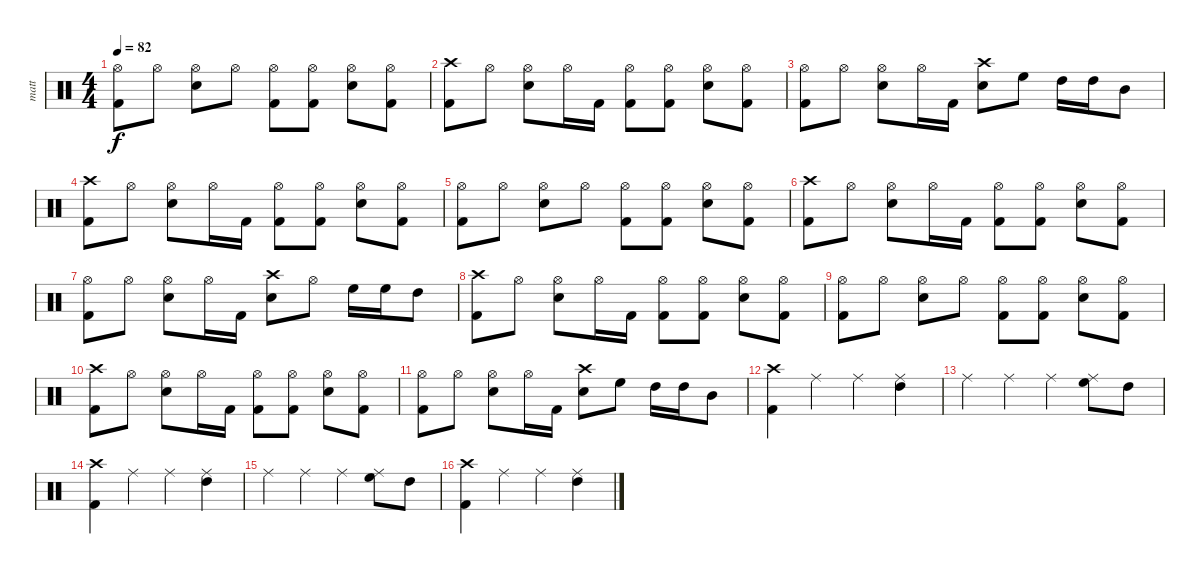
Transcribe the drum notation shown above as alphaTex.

\track ("matt" "matt") {instrument percussion}
\staff {score}
\articulation defaults
\ts (4 4)
\tempo 82
\clef neutral
\ks c
("Hi-Hat (open)" "Kick (hit) 2").8{dy f} "Hi-Hat (open)".8 ("Hi-Hat (open)" "Electric Snare (hit)").8 "Hi-Hat (open)".8 ("Hi-Hat (open)" "Kick (hit) 2").8 ("Hi-Hat (open)" "Kick (hit) 2").8 ("Hi-Hat (open)" "Electric Snare (hit)").8 ("Hi-Hat (open)" "Kick (hit) 2").8 |
("Crash high (hit)" "Kick (hit) 2").8 "Hi-Hat (open)".8 ("Hi-Hat (open)" "Electric Snare (hit)").8 "Hi-Hat (open)".16 "Kick (hit) 2".16 ("Hi-Hat (open)" "Kick (hit) 2").8 ("Hi-Hat (open)" "Kick (hit) 2").8 ("Hi-Hat (open)" "Electric Snare (hit)").8 ("Hi-Hat (open)" "Kick (hit) 2").8 |
("Hi-Hat (open)" "Kick (hit) 2").8 "Hi-Hat (open)".8 ("Hi-Hat (open)" "Electric Snare (hit)").8 "Hi-Hat (open)".16 "Kick (hit) 2".16 ("Crash high (hit)" "Electric Snare (hit)").8 "High Floor Tom (hit)".8 "High Tom (hit)".16 "High Tom (hit)".16 "Mid Tom (hit)".8 |
("Crash high (hit)" "Kick (hit) 2").8 "Hi-Hat (open)".8 ("Hi-Hat (open)" "Electric Snare (hit)").8 "Hi-Hat (open)".16 "Kick (hit) 2".16 ("Hi-Hat (open)" "Kick (hit) 2").8 ("Hi-Hat (open)" "Kick (hit) 2").8 ("Hi-Hat (open)" "Electric Snare (hit)").8 ("Hi-Hat (open)" "Kick (hit) 2").8 |
("Hi-Hat (open)" "Kick (hit) 2").8 "Hi-Hat (open)".8 ("Hi-Hat (open)" "Electric Snare (hit)").8 "Hi-Hat (open)".8 ("Hi-Hat (open)" "Kick (hit) 2").8 ("Hi-Hat (open)" "Kick (hit) 2").8 ("Hi-Hat (open)" "Electric Snare (hit)").8 ("Hi-Hat (open)" "Kick (hit) 2").8 |
("Crash high (hit)" "Kick (hit) 2").8 "Hi-Hat (open)".8 ("Hi-Hat (open)" "Electric Snare (hit)").8 "Hi-Hat (open)".16 "Kick (hit) 2".16 ("Hi-Hat (open)" "Kick (hit) 2").8 ("Hi-Hat (open)" "Kick (hit) 2").8 ("Hi-Hat (open)" "Electric Snare (hit)").8 ("Hi-Hat (open)" "Kick (hit) 2").8 |
("Hi-Hat (open)" "Kick (hit) 2").8 "Hi-Hat (open)".8 ("Hi-Hat (open)" "Electric Snare (hit)").8 "Hi-Hat (open)".16 "Kick (hit) 2".16 ("Crash high (hit)" "Electric Snare (hit)").8 "Hi-Hat (open)".8 "High Floor Tom (hit)".16 "High Floor Tom (hit)".16 "High Tom (hit)".8 |
("Crash high (hit)" "Kick (hit) 2").8 "Hi-Hat (open)".8 ("Hi-Hat (open)" "Electric Snare (hit)").8 "Hi-Hat (open)".16 "Kick (hit) 2".16 ("Hi-Hat (open)" "Kick (hit) 2").8 ("Hi-Hat (open)" "Kick (hit) 2").8 ("Hi-Hat (open)" "Electric Snare (hit)").8 ("Hi-Hat (open)" "Kick (hit) 2").8 |
("Hi-Hat (open)" "Kick (hit) 2").8 "Hi-Hat (open)".8 ("Hi-Hat (open)" "Electric Snare (hit)").8 "Hi-Hat (open)".8 ("Hi-Hat (open)" "Kick (hit) 2").8 ("Hi-Hat (open)" "Kick (hit) 2").8 ("Hi-Hat (open)" "Electric Snare (hit)").8 ("Hi-Hat (open)" "Kick (hit) 2").8 |
("Crash high (hit)" "Kick (hit) 2").8 "Hi-Hat (open)".8 ("Hi-Hat (open)" "Electric Snare (hit)").8 "Hi-Hat (open)".16 "Kick (hit) 2".16 ("Hi-Hat (open)" "Kick (hit) 2").8 ("Hi-Hat (open)" "Kick (hit) 2").8 ("Hi-Hat (open)" "Electric Snare (hit)").8 ("Hi-Hat (open)" "Kick (hit) 2").8 |
("Hi-Hat (open)" "Kick (hit) 2").8 "Hi-Hat (open)".8 ("Hi-Hat (open)" "Electric Snare (hit)").8 "Hi-Hat (open)".16 "Kick (hit) 2".16 ("Crash high (hit)" "Electric Snare (hit)").8 "High Floor Tom (hit)".8 "High Tom (hit)".16 "High Tom (hit)".16 "Mid Tom (hit)".8 |
("Crash high (hit)" "Kick (hit) 2").4 "Ride (middle)".4 "Ride (middle)".4 ("Ride (middle)" "High Tom (hit)").4 |
"Ride (middle)".4 "Ride (middle)".4 "Ride (middle)".4 ("Ride (middle)" "High Floor Tom (hit)").8 "High Tom (hit)".8 |
("Crash high (hit)" "Kick (hit) 2").4 "Ride (middle)".4 "Ride (middle)".4 ("Ride (middle)" "High Tom (hit)").4 |
"Ride (middle)".4 "Ride (middle)".4 "Ride (middle)".4 ("Ride (middle)" "High Floor Tom (hit)").8 "High Tom (hit)".8 |
("Crash high (hit)" "Kick (hit) 2").4 "Ride (middle)".4 "Ride (middle)".4 ("Ride (middle)" "High Tom (hit)").4
